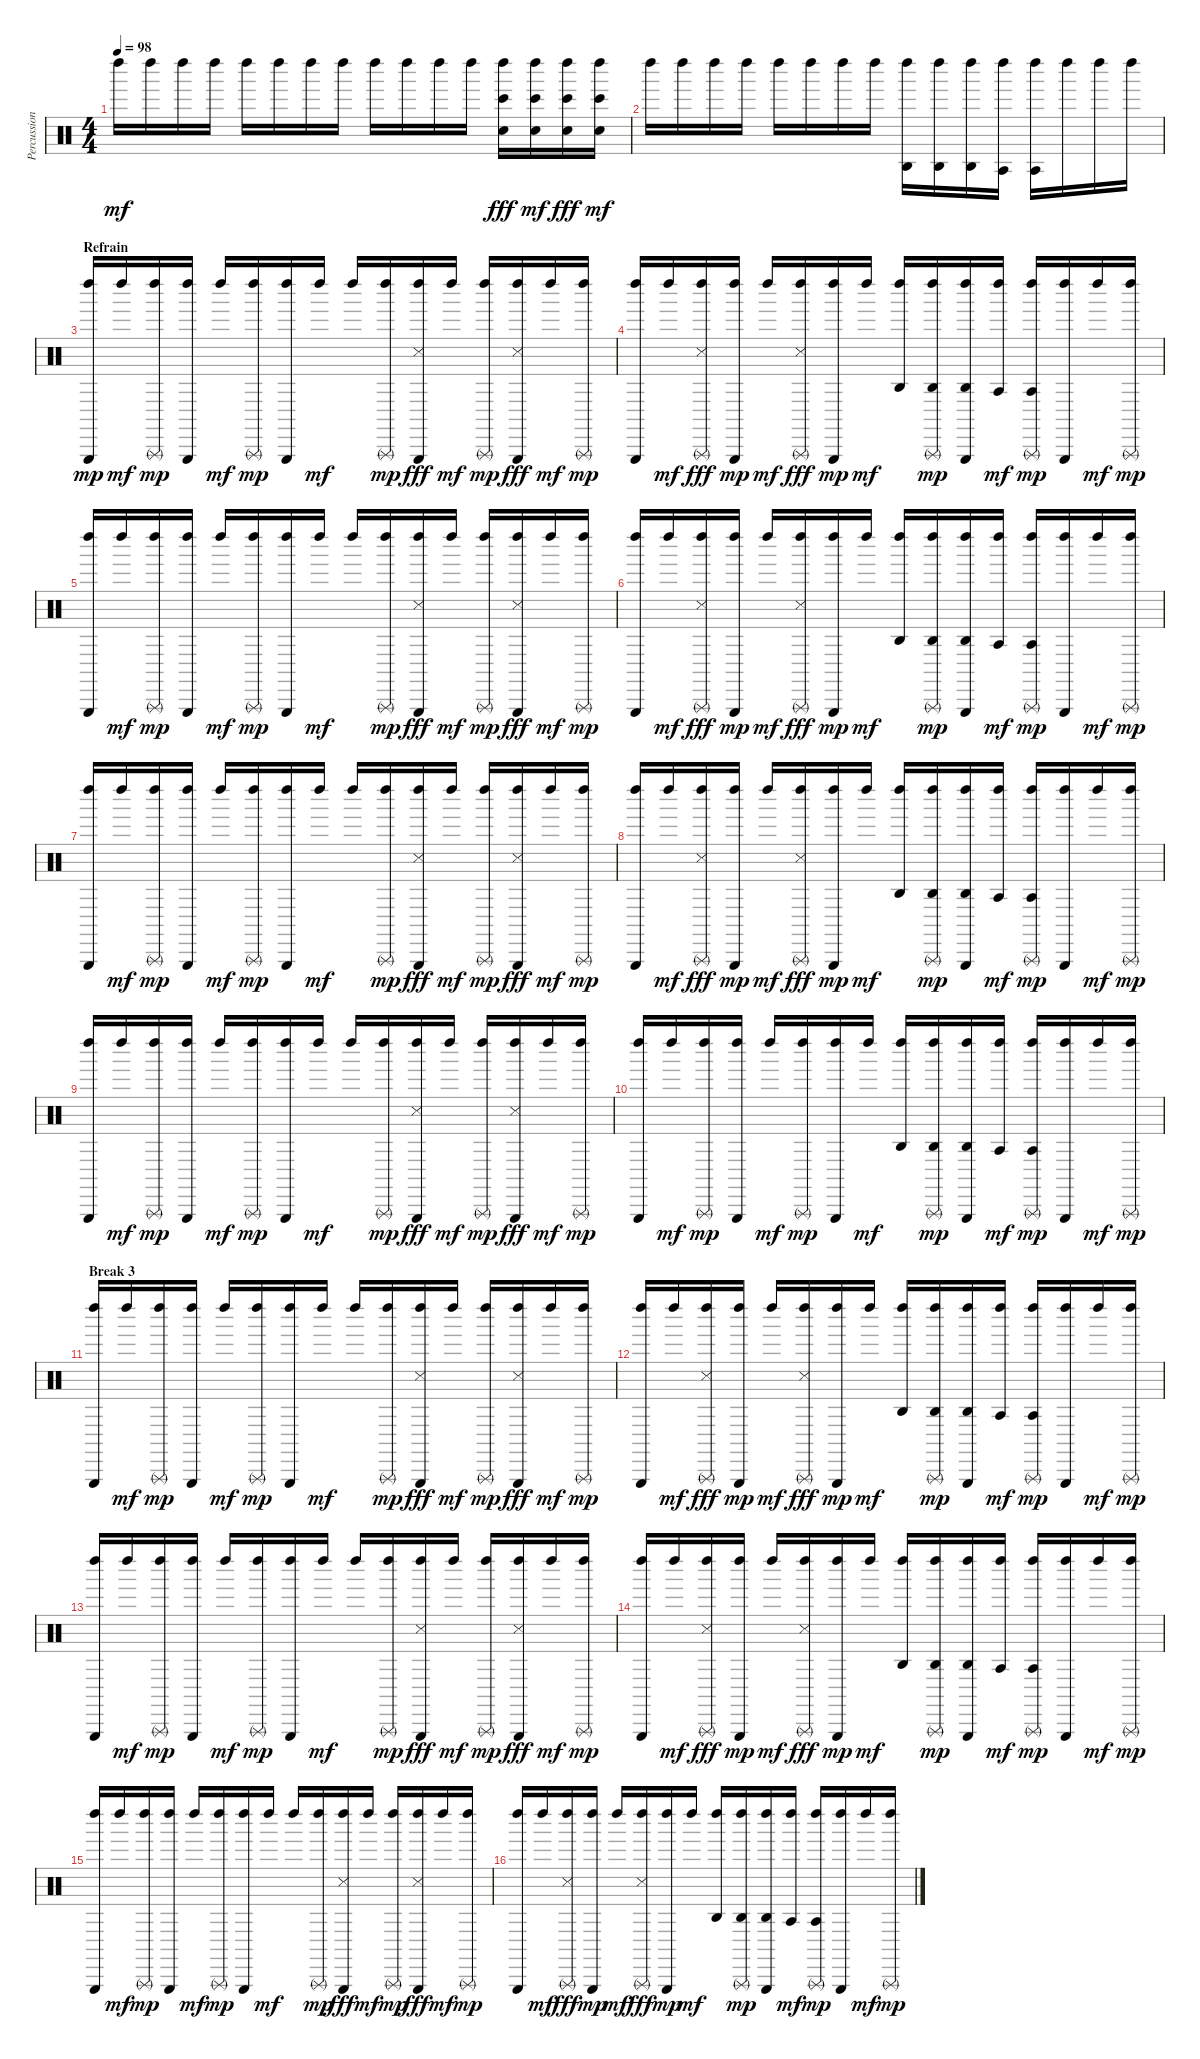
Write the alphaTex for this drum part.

\track ("Percussions" "Percussion") {instrument percussion}
\staff {score}
\articulation defaults
\ts (4 4)
\tempo 98
\clef neutral
\ks c "Left Maraca (hit)".16{dy mf} "Left Maraca (hit)".16 "Left Maraca (hit)".16 "Left Maraca (hit)".16 "Left Maraca (hit)".16 "Left Maraca (hit)".16 "Left Maraca (hit)".16 "Left Maraca (hit)".16 "Left Maraca (hit)".16 "Left Maraca (hit)".16 "Left Maraca (hit)".16 "Left Maraca (hit)".16
("Left Maraca (hit)" "Bongo High (hit)" "Hand Clap (hit)").16{dy fff} ("Left Maraca (hit)" "Bongo High (hit)" "Hand Clap (hit)").16{dy mf} ("Left Maraca (hit)" "Bongo High (hit)" "Hand Clap (hit)").16{dy fff} ("Left Maraca (hit)" "Bongo High (hit)" "Hand Clap (hit)").16{dy mf} |
"Left Maraca (hit)".16 "Left Maraca (hit)".16 "Left Maraca (hit)".16 "Left Maraca (hit)".16 "Left Maraca (hit)".16 "Left Maraca (hit)".16 "Left Maraca (hit)".16 "Left Maraca (hit)".16 ("Left Maraca (hit)" "Agogo high (hit)").16 ("Left Maraca (hit)" "Agogo high (hit)").16 ("Left Maraca (hit)" "Agogo high (hit)").16 ("Left Maraca (hit)" "Agogo tow (hit)").16 ("Left Maraca (hit)" "Agogo tow (hit)").16 "Left Maraca (hit)".16 "Left Maraca (hit)".16 "Left Maraca (hit)".16 |
\section ("" "Refrain")
("Left Maraca (hit)" "Triangle (hit)").16{dy mp} "Left Maraca (hit)".16{dy mf} ("Left Maraca (hit)" "Triangle (rnute)").16{dy mp} ("Left Maraca (hit)" "Triangle (hit)").16 "Left Maraca (hit)".16{dy mf} ("Left Maraca (hit)" "Triangle (rnute)").16{dy mp} ("Left Maraca (hit)" "Triangle (hit)").16 "Left Maraca (hit)".16{dy mf} "Left Maraca (hit)".16 ("Left Maraca (hit)" "Triangle (rnute)").16{dy mp} ("Left Maraca (hit)" "Triangle (hit)" "Snare (side stick) 3").16{dy fff} "Left Maraca (hit)".16{dy mf} ("Left Maraca (hit)" "Triangle (rnute)").16{dy mp} ("Left Maraca (hit)" "Triangle (hit)" "Snare (side stick) 3").16{dy fff} "Left Maraca (hit)".16{dy mf} ("Left Maraca (hit)" "Triangle (rnute)").16{dy mp} |
("Left Maraca (hit)" "Triangle (hit)").16 "Left Maraca (hit)".16{dy mf} ("Left Maraca (hit)" "Triangle (rnute)" "Snare (side stick) 3").16{dy fff} ("Left Maraca (hit)" "Triangle (hit)").16{dy mp} "Left Maraca (hit)".16{dy mf} ("Left Maraca (hit)" "Triangle (rnute)" "Snare (side stick) 3").16{dy fff} ("Left Maraca (hit)" "Triangle (hit)").16{dy mp} "Left Maraca (hit)".16{dy mf} ("Left Maraca (hit)" "Agogo high (hit)").16 ("Left Maraca (hit)" "Triangle (rnute)" "Agogo high (hit)").16{dy mp} ("Left Maraca (hit)" "Triangle (hit)" "Agogo high (hit)").16 ("Left Maraca (hit)" "Agogo tow (hit)").16{dy mf} ("Left Maraca (hit)" "Triangle (rnute)" "Agogo tow (hit)").16{dy mp} ("Left Maraca (hit)" "Triangle (hit)").16 "Left Maraca (hit)".16{dy mf} ("Left Maraca (hit)" "Triangle (rnute)").16{dy mp} |
("Left Maraca (hit)" "Triangle (hit)").16 "Left Maraca (hit)".16{dy mf} ("Left Maraca (hit)" "Triangle (rnute)").16{dy mp} ("Left Maraca (hit)" "Triangle (hit)").16 "Left Maraca (hit)".16{dy mf} ("Left Maraca (hit)" "Triangle (rnute)").16{dy mp} ("Left Maraca (hit)" "Triangle (hit)").16 "Left Maraca (hit)".16{dy mf} "Left Maraca (hit)".16 ("Left Maraca (hit)" "Triangle (rnute)").16{dy mp} ("Left Maraca (hit)" "Triangle (hit)" "Snare (side stick) 3").16{dy fff} "Left Maraca (hit)".16{dy mf} ("Left Maraca (hit)" "Triangle (rnute)").16{dy mp} ("Left Maraca (hit)" "Triangle (hit)" "Snare (side stick) 3").16{dy fff} "Left Maraca (hit)".16{dy mf} ("Left Maraca (hit)" "Triangle (rnute)").16{dy mp} |
("Left Maraca (hit)" "Triangle (hit)").16 "Left Maraca (hit)".16{dy mf} ("Left Maraca (hit)" "Triangle (rnute)" "Snare (side stick) 3").16{dy fff} ("Left Maraca (hit)" "Triangle (hit)").16{dy mp} "Left Maraca (hit)".16{dy mf} ("Left Maraca (hit)" "Triangle (rnute)" "Snare (side stick) 3").16{dy fff} ("Left Maraca (hit)" "Triangle (hit)").16{dy mp} "Left Maraca (hit)".16{dy mf} ("Left Maraca (hit)" "Agogo high (hit)").16 ("Left Maraca (hit)" "Triangle (rnute)" "Agogo high (hit)").16{dy mp} ("Left Maraca (hit)" "Triangle (hit)" "Agogo high (hit)").16 ("Left Maraca (hit)" "Agogo tow (hit)").16{dy mf} ("Left Maraca (hit)" "Triangle (rnute)" "Agogo tow (hit)").16{dy mp} ("Left Maraca (hit)" "Triangle (hit)").16 "Left Maraca (hit)".16{dy mf} ("Left Maraca (hit)" "Triangle (rnute)").16{dy mp} |
("Left Maraca (hit)" "Triangle (hit)").16 "Left Maraca (hit)".16{dy mf} ("Left Maraca (hit)" "Triangle (rnute)").16{dy mp} ("Left Maraca (hit)" "Triangle (hit)").16 "Left Maraca (hit)".16{dy mf} ("Left Maraca (hit)" "Triangle (rnute)").16{dy mp} ("Left Maraca (hit)" "Triangle (hit)").16 "Left Maraca (hit)".16{dy mf} "Left Maraca (hit)".16 ("Left Maraca (hit)" "Triangle (rnute)").16{dy mp} ("Left Maraca (hit)" "Triangle (hit)" "Snare (side stick) 3").16{dy fff} "Left Maraca (hit)".16{dy mf} ("Left Maraca (hit)" "Triangle (rnute)").16{dy mp} ("Left Maraca (hit)" "Triangle (hit)" "Snare (side stick) 3").16{dy fff} "Left Maraca (hit)".16{dy mf} ("Left Maraca (hit)" "Triangle (rnute)").16{dy mp} |
("Left Maraca (hit)" "Triangle (hit)").16 "Left Maraca (hit)".16{dy mf} ("Left Maraca (hit)" "Triangle (rnute)" "Snare (side stick) 3").16{dy fff} ("Left Maraca (hit)" "Triangle (hit)").16{dy mp} "Left Maraca (hit)".16{dy mf} ("Left Maraca (hit)" "Triangle (rnute)" "Snare (side stick) 3").16{dy fff} ("Left Maraca (hit)" "Triangle (hit)").16{dy mp} "Left Maraca (hit)".16{dy mf} ("Left Maraca (hit)" "Agogo high (hit)").16 ("Left Maraca (hit)" "Triangle (rnute)" "Agogo high (hit)").16{dy mp} ("Left Maraca (hit)" "Triangle (hit)" "Agogo high (hit)").16 ("Left Maraca (hit)" "Agogo tow (hit)").16{dy mf} ("Left Maraca (hit)" "Triangle (rnute)" "Agogo tow (hit)").16{dy mp} ("Left Maraca (hit)" "Triangle (hit)").16 "Left Maraca (hit)".16{dy mf} ("Left Maraca (hit)" "Triangle (rnute)").16{dy mp} |
("Left Maraca (hit)" "Triangle (hit)").16 "Left Maraca (hit)".16{dy mf} ("Left Maraca (hit)" "Triangle (rnute)").16{dy mp} ("Left Maraca (hit)" "Triangle (hit)").16 "Left Maraca (hit)".16{dy mf} ("Left Maraca (hit)" "Triangle (rnute)").16{dy mp} ("Left Maraca (hit)" "Triangle (hit)").16 "Left Maraca (hit)".16{dy mf} "Left Maraca (hit)".16 ("Left Maraca (hit)" "Triangle (rnute)").16{dy mp} ("Left Maraca (hit)" "Triangle (hit)" "Snare (side stick) 3").16{dy fff} "Left Maraca (hit)".16{dy mf} ("Left Maraca (hit)" "Triangle (rnute)").16{dy mp} ("Left Maraca (hit)" "Triangle (hit)" "Snare (side stick) 3").16{dy fff} "Left Maraca (hit)".16{dy mf} ("Left Maraca (hit)" "Triangle (rnute)").16{dy mp} |
("Left Maraca (hit)" "Triangle (hit)").16 "Left Maraca (hit)".16{dy mf} ("Left Maraca (hit)" "Triangle (rnute)").16{dy mp} ("Left Maraca (hit)" "Triangle (hit)").16 "Left Maraca (hit)".16{dy mf} ("Left Maraca (hit)" "Triangle (rnute)").16{dy mp} ("Left Maraca (hit)" "Triangle (hit)").16 "Left Maraca (hit)".16{dy mf} ("Left Maraca (hit)" "Agogo high (hit)").16 ("Left Maraca (hit)" "Triangle (rnute)" "Agogo high (hit)").16{dy mp} ("Left Maraca (hit)" "Triangle (hit)" "Agogo high (hit)").16 ("Left Maraca (hit)" "Agogo tow (hit)").16{dy mf} ("Left Maraca (hit)" "Triangle (rnute)" "Agogo tow (hit)").16{dy mp} ("Left Maraca (hit)" "Triangle (hit)").16 "Left Maraca (hit)".16{dy mf} ("Left Maraca (hit)" "Triangle (rnute)").16{dy mp} |
\section ("" "Break 3")
("Left Maraca (hit)" "Triangle (hit)").16 "Left Maraca (hit)".16{dy mf} ("Left Maraca (hit)" "Triangle (rnute)").16{dy mp} ("Left Maraca (hit)" "Triangle (hit)").16 "Left Maraca (hit)".16{dy mf} ("Left Maraca (hit)" "Triangle (rnute)").16{dy mp} ("Left Maraca (hit)" "Triangle (hit)").16 "Left Maraca (hit)".16{dy mf} "Left Maraca (hit)".16 ("Left Maraca (hit)" "Triangle (rnute)").16{dy mp} ("Left Maraca (hit)" "Triangle (hit)" "Snare (side stick) 3").16{dy fff} "Left Maraca (hit)".16{dy mf} ("Left Maraca (hit)" "Triangle (rnute)").16{dy mp} ("Left Maraca (hit)" "Triangle (hit)" "Snare (side stick) 3").16{dy fff} "Left Maraca (hit)".16{dy mf} ("Left Maraca (hit)" "Triangle (rnute)").16{dy mp} |
("Left Maraca (hit)" "Triangle (hit)").16 "Left Maraca (hit)".16{dy mf} ("Left Maraca (hit)" "Triangle (rnute)" "Snare (side stick) 3").16{dy fff} ("Left Maraca (hit)" "Triangle (hit)").16{dy mp} "Left Maraca (hit)".16{dy mf} ("Left Maraca (hit)" "Triangle (rnute)" "Snare (side stick) 3").16{dy fff} ("Left Maraca (hit)" "Triangle (hit)").16{dy mp} "Left Maraca (hit)".16{dy mf} ("Left Maraca (hit)" "Agogo high (hit)").16 ("Left Maraca (hit)" "Triangle (rnute)" "Agogo high (hit)").16{dy mp} ("Left Maraca (hit)" "Triangle (hit)" "Agogo high (hit)").16 ("Left Maraca (hit)" "Agogo tow (hit)").16{dy mf} ("Left Maraca (hit)" "Triangle (rnute)" "Agogo tow (hit)").16{dy mp} ("Left Maraca (hit)" "Triangle (hit)").16 "Left Maraca (hit)".16{dy mf} ("Left Maraca (hit)" "Triangle (rnute)").16{dy mp} |
("Left Maraca (hit)" "Triangle (hit)").16 "Left Maraca (hit)".16{dy mf} ("Left Maraca (hit)" "Triangle (rnute)").16{dy mp} ("Left Maraca (hit)" "Triangle (hit)").16 "Left Maraca (hit)".16{dy mf} ("Left Maraca (hit)" "Triangle (rnute)").16{dy mp} ("Left Maraca (hit)" "Triangle (hit)").16 "Left Maraca (hit)".16{dy mf} "Left Maraca (hit)".16 ("Left Maraca (hit)" "Triangle (rnute)").16{dy mp} ("Left Maraca (hit)" "Triangle (hit)" "Snare (side stick) 3").16{dy fff} "Left Maraca (hit)".16{dy mf} ("Left Maraca (hit)" "Triangle (rnute)").16{dy mp} ("Left Maraca (hit)" "Triangle (hit)" "Snare (side stick) 3").16{dy fff} "Left Maraca (hit)".16{dy mf} ("Left Maraca (hit)" "Triangle (rnute)").16{dy mp} |
("Left Maraca (hit)" "Triangle (hit)").16 "Left Maraca (hit)".16{dy mf} ("Left Maraca (hit)" "Triangle (rnute)" "Snare (side stick) 3").16{dy fff} ("Left Maraca (hit)" "Triangle (hit)").16{dy mp} "Left Maraca (hit)".16{dy mf} ("Left Maraca (hit)" "Triangle (rnute)" "Snare (side stick) 3").16{dy fff} ("Left Maraca (hit)" "Triangle (hit)").16{dy mp} "Left Maraca (hit)".16{dy mf} ("Left Maraca (hit)" "Agogo high (hit)").16 ("Left Maraca (hit)" "Triangle (rnute)" "Agogo high (hit)").16{dy mp} ("Left Maraca (hit)" "Triangle (hit)" "Agogo high (hit)").16 ("Left Maraca (hit)" "Agogo tow (hit)").16{dy mf} ("Left Maraca (hit)" "Triangle (rnute)" "Agogo tow (hit)").16{dy mp} ("Left Maraca (hit)" "Triangle (hit)").16 "Left Maraca (hit)".16{dy mf} ("Left Maraca (hit)" "Triangle (rnute)").16{dy mp} |
("Left Maraca (hit)" "Triangle (hit)").16 "Left Maraca (hit)".16{dy mf} ("Left Maraca (hit)" "Triangle (rnute)").16{dy mp} ("Left Maraca (hit)" "Triangle (hit)").16 "Left Maraca (hit)".16{dy mf} ("Left Maraca (hit)" "Triangle (rnute)").16{dy mp} ("Left Maraca (hit)" "Triangle (hit)").16 "Left Maraca (hit)".16{dy mf} "Left Maraca (hit)".16 ("Left Maraca (hit)" "Triangle (rnute)").16{dy mp} ("Left Maraca (hit)" "Triangle (hit)" "Snare (side stick) 3").16{dy fff} "Left Maraca (hit)".16{dy mf} ("Left Maraca (hit)" "Triangle (rnute)").16{dy mp} ("Left Maraca (hit)" "Triangle (hit)" "Snare (side stick) 3").16{dy fff} "Left Maraca (hit)".16{dy mf} ("Left Maraca (hit)" "Triangle (rnute)").16{dy mp} |
("Left Maraca (hit)" "Triangle (hit)").16 "Left Maraca (hit)".16{dy mf} ("Left Maraca (hit)" "Triangle (rnute)" "Snare (side stick) 3").16{dy fff} ("Left Maraca (hit)" "Triangle (hit)").16{dy mp} "Left Maraca (hit)".16{dy mf} ("Left Maraca (hit)" "Triangle (rnute)" "Snare (side stick) 3").16{dy fff} ("Left Maraca (hit)" "Triangle (hit)").16{dy mp} "Left Maraca (hit)".16{dy mf} ("Left Maraca (hit)" "Agogo high (hit)").16 ("Left Maraca (hit)" "Triangle (rnute)" "Agogo high (hit)").16{dy mp} ("Left Maraca (hit)" "Triangle (hit)" "Agogo high (hit)").16 ("Left Maraca (hit)" "Agogo tow (hit)").16{dy mf} ("Left Maraca (hit)" "Triangle (rnute)" "Agogo tow (hit)").16{dy mp} ("Left Maraca (hit)" "Triangle (hit)").16 "Left Maraca (hit)".16{dy mf} ("Left Maraca (hit)" "Triangle (rnute)").16{dy mp}
